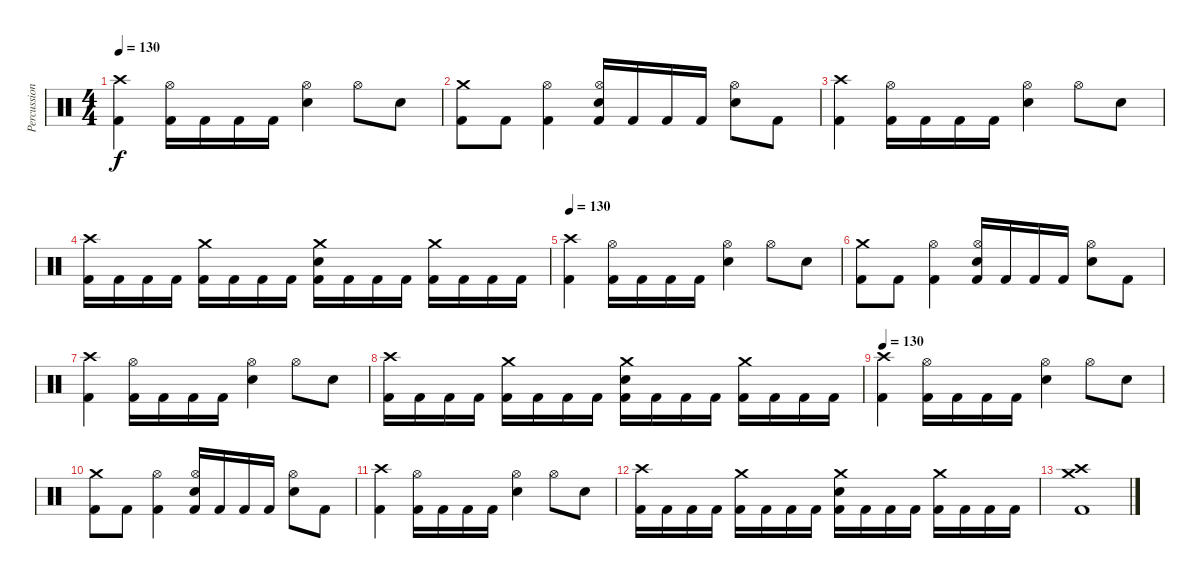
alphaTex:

\track ("Percussion" "Percussion") {instrument percussion}
\staff {score}
\articulation defaults
\ts (4 4)
\tempo 130
\clef neutral
\ks c
("Crash high (hit)" "Kick (hit) 2").4{dy f} ("Hi-Hat (open)" "Kick (hit) 2").16 "Kick (hit) 2".16 "Kick (hit) 2".16 "Kick (hit) 2".16 ("Hi-Hat (open)" "Electric Snare (hit)").4 "Hi-Hat (open)".8 "Electric Snare (hit)".8 |
("Crash medium (hit)" "Kick (hit) 2").8 "Kick (hit) 2".8 ("Hi-Hat (open)" "Kick (hit) 2").4 ("Hi-Hat (open)" "Electric Snare (hit)" "Kick (hit) 2").16 "Kick (hit) 2".16 "Kick (hit) 2".16 "Kick (hit) 2".16 ("Hi-Hat (open)" "Electric Snare (hit)").8 "Kick (hit) 2".8 |
("Crash high (hit)" "Kick (hit) 2").4 ("Hi-Hat (open)" "Kick (hit) 2").16 "Kick (hit) 2".16 "Kick (hit) 2".16 "Kick (hit) 2".16 ("Hi-Hat (open)" "Electric Snare (hit)").4 "Hi-Hat (open)".8 "Electric Snare (hit)".8 |
("Crash high (hit)" "Kick (hit) 2").16 "Kick (hit) 2".16 "Kick (hit) 2".16 "Kick (hit) 2".16 ("Crash medium (hit)" "Kick (hit) 2").16 "Kick (hit) 2".16 "Kick (hit) 2".16 "Kick (hit) 2".16 ("Crash medium (hit)" "Electric Snare (hit)" "Kick (hit) 2").16 "Kick (hit) 2".16 "Kick (hit) 2".16 "Kick (hit) 2".16 ("Crash medium (hit)" "Kick (hit) 2").16 "Kick (hit) 2".16 "Kick (hit) 2".16 "Kick (hit) 2".16 |
\tempo 130
("Crash high (hit)" "Kick (hit) 2").4 ("Hi-Hat (open)" "Kick (hit) 2").16 "Kick (hit) 2".16 "Kick (hit) 2".16 "Kick (hit) 2".16 ("Hi-Hat (open)" "Electric Snare (hit)").4 "Hi-Hat (open)".8 "Electric Snare (hit)".8 |
("Crash medium (hit)" "Kick (hit) 2").8 "Kick (hit) 2".8 ("Hi-Hat (open)" "Kick (hit) 2").4 ("Hi-Hat (open)" "Electric Snare (hit)" "Kick (hit) 2").16 "Kick (hit) 2".16 "Kick (hit) 2".16 "Kick (hit) 2".16 ("Hi-Hat (open)" "Electric Snare (hit)").8 "Kick (hit) 2".8 |
("Crash high (hit)" "Kick (hit) 2").4 ("Hi-Hat (open)" "Kick (hit) 2").16 "Kick (hit) 2".16 "Kick (hit) 2".16 "Kick (hit) 2".16 ("Hi-Hat (open)" "Electric Snare (hit)").4 "Hi-Hat (open)".8 "Electric Snare (hit)".8 |
("Crash high (hit)" "Kick (hit) 2").16 "Kick (hit) 2".16 "Kick (hit) 2".16 "Kick (hit) 2".16 ("Crash medium (hit)" "Kick (hit) 2").16 "Kick (hit) 2".16 "Kick (hit) 2".16 "Kick (hit) 2".16 ("Crash medium (hit)" "Electric Snare (hit)" "Kick (hit) 2").16 "Kick (hit) 2".16 "Kick (hit) 2".16 "Kick (hit) 2".16 ("Crash medium (hit)" "Kick (hit) 2").16 "Kick (hit) 2".16 "Kick (hit) 2".16 "Kick (hit) 2".16 |
\tempo 130
("Crash high (hit)" "Kick (hit) 2").4 ("Hi-Hat (open)" "Kick (hit) 2").16 "Kick (hit) 2".16 "Kick (hit) 2".16 "Kick (hit) 2".16 ("Hi-Hat (open)" "Electric Snare (hit)").4 "Hi-Hat (open)".8 "Electric Snare (hit)".8 |
("Crash medium (hit)" "Kick (hit) 2").8 "Kick (hit) 2".8 ("Hi-Hat (open)" "Kick (hit) 2").4 ("Hi-Hat (open)" "Electric Snare (hit)" "Kick (hit) 2").16 "Kick (hit) 2".16 "Kick (hit) 2".16 "Kick (hit) 2".16 ("Hi-Hat (open)" "Electric Snare (hit)").8 "Kick (hit) 2".8 |
("Crash high (hit)" "Kick (hit) 2").4 ("Hi-Hat (open)" "Kick (hit) 2").16 "Kick (hit) 2".16 "Kick (hit) 2".16 "Kick (hit) 2".16 ("Hi-Hat (open)" "Electric Snare (hit)").4 "Hi-Hat (open)".8 "Electric Snare (hit)".8 |
("Crash high (hit)" "Kick (hit) 2").16 "Kick (hit) 2".16 "Kick (hit) 2".16 "Kick (hit) 2".16 ("Crash medium (hit)" "Kick (hit) 2").16 "Kick (hit) 2".16 "Kick (hit) 2".16 "Kick (hit) 2".16 ("Crash medium (hit)" "Electric Snare (hit)" "Kick (hit) 2").16 "Kick (hit) 2".16 "Kick (hit) 2".16 "Kick (hit) 2".16 ("Crash medium (hit)" "Kick (hit) 2").16 "Kick (hit) 2".16 "Kick (hit) 2".16 "Kick (hit) 2".16 |
("Crash high (hit)" "Crash medium (hit)" "Kick (hit) 2").1{volume 0}
